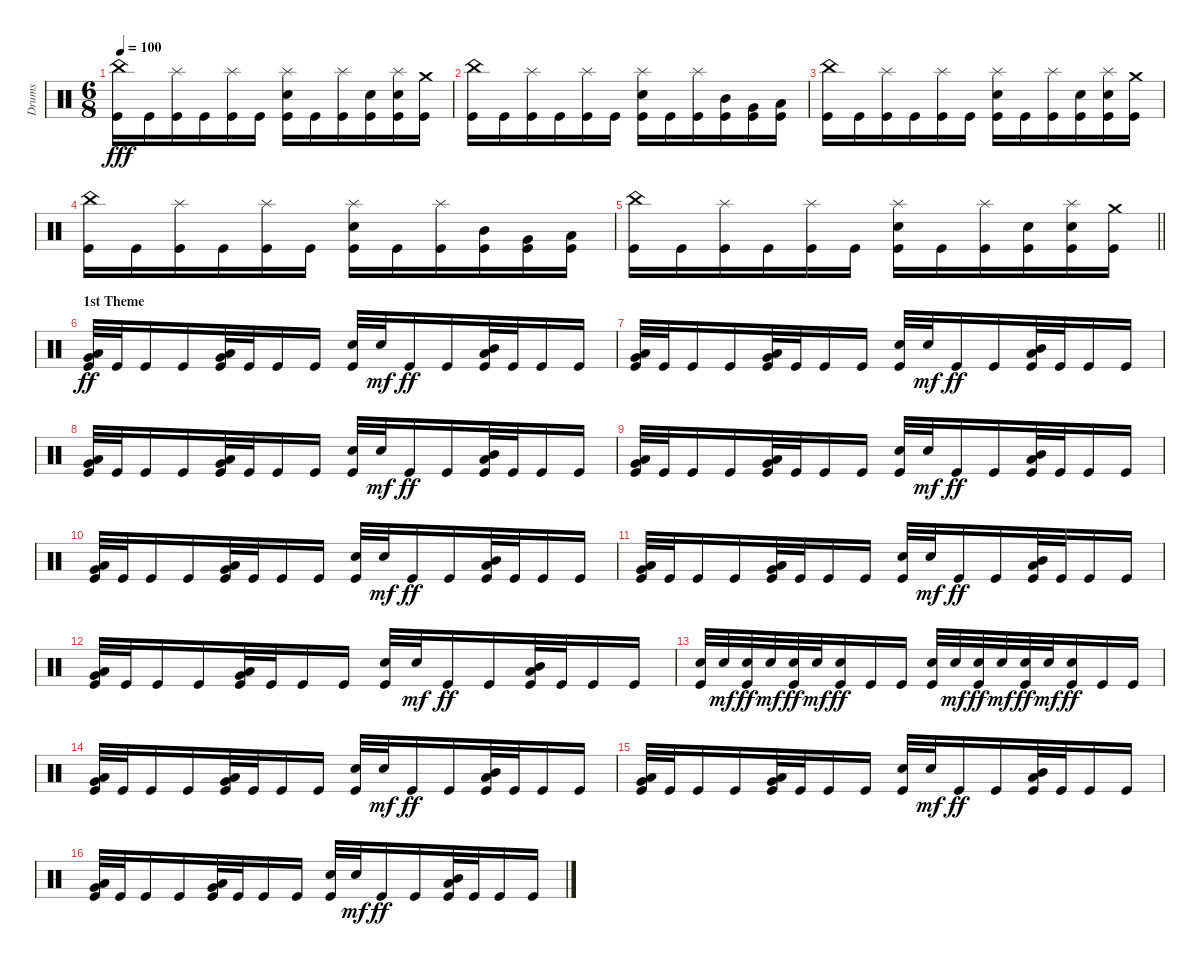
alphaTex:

\track ("Drums" "Drums") {instrument percussion}
\staff
\articulation defaults
\ts (6 8)
\tempo 100
\clef neutral
\ks c
("China (hit)" "Kick (hit)").16{dy fff} "Kick (hit)".16 ("Splash (hit)" "Kick (hit)").16 "Kick (hit)".16 ("Splash (hit)" "Kick (hit)").16 "Kick (hit)".16 ("Splash (hit)" "Snare (hit) 2" "Kick (hit)").16 "Kick (hit)".16 ("Splash (hit)" "Kick (hit)").16 ("Snare (hit) 2" "Kick (hit)").16 ("Splash (hit)" "Snare (hit) 2" "Kick (hit)").16 ("Crash medium (hit)" "Kick (hit)").16 |
("China (hit)" "Kick (hit)").16 "Kick (hit)".16 ("Splash (hit)" "Kick (hit)").16 "Kick (hit)".16 ("Splash (hit)" "Kick (hit)").16 "Kick (hit)".16 ("Splash (hit)" "Snare (hit) 2" "Kick (hit)").16 "Kick (hit)".16 ("Splash (hit)" "Kick (hit)").16 ("Mid Tom (hit)" "Kick (hit)").16 ("Very Low Tom (hit)" "Kick (hit)").16 ("Low Tom (hit)" "Kick (hit)").16 |
("China (hit)" "Kick (hit)").16 "Kick (hit)".16 ("Splash (hit)" "Kick (hit)").16 "Kick (hit)".16 ("Splash (hit)" "Kick (hit)").16 "Kick (hit)".16 ("Splash (hit)" "Snare (hit) 2" "Kick (hit)").16 "Kick (hit)".16 ("Splash (hit)" "Kick (hit)").16 ("Snare (hit) 2" "Kick (hit)").16 ("Splash (hit)" "Snare (hit) 2" "Kick (hit)").16 ("Crash medium (hit)" "Kick (hit)").16 |
("China (hit)" "Kick (hit)").16 "Kick (hit)".16 ("Splash (hit)" "Kick (hit)").16 "Kick (hit)".16 ("Splash (hit)" "Kick (hit)").16 "Kick (hit)".16 ("Splash (hit)" "Snare (hit) 2" "Kick (hit)").16 "Kick (hit)".16 ("Splash (hit)" "Kick (hit)").16 ("Mid Tom (hit)" "Kick (hit)").16 ("Very Low Tom (hit)" "Kick (hit)").16 ("Low Tom (hit)" "Kick (hit)").16 |
\barLineRight lightlight
("China (hit)" "Kick (hit)").16 "Kick (hit)".16 ("Splash (hit)" "Kick (hit)").16 "Kick (hit)".16 ("Splash (hit)" "Kick (hit)").16 "Kick (hit)".16 ("Splash (hit)" "Snare (hit) 2" "Kick (hit)").16 "Kick (hit)".16 ("Splash (hit)" "Kick (hit)").16 ("Snare (hit) 2" "Kick (hit)").16 ("Splash (hit)" "Snare (hit) 2" "Kick (hit)").16 ("Crash medium (hit)" "Kick (hit)").16 |
\section ("" "1st Theme")
("Low Tom (hit)" "Very Low Tom (hit)" "Kick (hit)").32{dy ff} "Kick (hit)".32 "Kick (hit)".16 "Kick (hit)".16 ("Very Low Tom (hit)" "Low Floor Tom (hit)" "Kick (hit)").32 "Kick (hit)".32 "Kick (hit)".16 "Kick (hit)".16 ("Snare (hit) 2" "Kick (hit)").32 "Snare (hit) 2".32{dy mf} "Kick (hit)".16{dy ff} "Kick (hit)".16 ("Mid Tom (hit)" "Low Tom (hit)" "Kick (hit)").32 "Kick (hit)".32 "Kick (hit)".16 "Kick (hit)".16 |
("Low Tom (hit)" "Very Low Tom (hit)" "Kick (hit)").32 "Kick (hit)".32 "Kick (hit)".16 "Kick (hit)".16 ("Very Low Tom (hit)" "Low Floor Tom (hit)" "Kick (hit)").32 "Kick (hit)".32 "Kick (hit)".16 "Kick (hit)".16 ("Snare (hit) 2" "Kick (hit)").32 "Snare (hit) 2".32{dy mf} "Kick (hit)".16{dy ff} "Kick (hit)".16 ("Mid Tom (hit)" "Low Tom (hit)" "Kick (hit)").32 "Kick (hit)".32 "Kick (hit)".16 "Kick (hit)".16 |
("Low Tom (hit)" "Very Low Tom (hit)" "Kick (hit)").32 "Kick (hit)".32 "Kick (hit)".16 "Kick (hit)".16 ("Very Low Tom (hit)" "Low Floor Tom (hit)" "Kick (hit)").32 "Kick (hit)".32 "Kick (hit)".16 "Kick (hit)".16 ("Snare (hit) 2" "Kick (hit)").32 "Snare (hit) 2".32{dy mf} "Kick (hit)".16{dy ff} "Kick (hit)".16 ("Mid Tom (hit)" "Low Tom (hit)" "Kick (hit)").32 "Kick (hit)".32 "Kick (hit)".16 "Kick (hit)".16 |
("Low Tom (hit)" "Very Low Tom (hit)" "Kick (hit)").32 "Kick (hit)".32 "Kick (hit)".16 "Kick (hit)".16 ("Very Low Tom (hit)" "Low Floor Tom (hit)" "Kick (hit)").32 "Kick (hit)".32 "Kick (hit)".16 "Kick (hit)".16 ("Snare (hit) 2" "Kick (hit)").32 "Snare (hit) 2".32{dy mf} "Kick (hit)".16{dy ff} "Kick (hit)".16 ("Mid Tom (hit)" "Low Tom (hit)" "Kick (hit)").32 "Kick (hit)".32 "Kick (hit)".16 "Kick (hit)".16 |
("Low Tom (hit)" "Very Low Tom (hit)" "Kick (hit)").32 "Kick (hit)".32 "Kick (hit)".16 "Kick (hit)".16 ("Very Low Tom (hit)" "Low Floor Tom (hit)" "Kick (hit)").32 "Kick (hit)".32 "Kick (hit)".16 "Kick (hit)".16 ("Snare (hit) 2" "Kick (hit)").32 "Snare (hit) 2".32{dy mf} "Kick (hit)".16{dy ff} "Kick (hit)".16 ("Mid Tom (hit)" "Low Tom (hit)" "Kick (hit)").32 "Kick (hit)".32 "Kick (hit)".16 "Kick (hit)".16 |
("Low Tom (hit)" "Very Low Tom (hit)" "Kick (hit)").32 "Kick (hit)".32 "Kick (hit)".16 "Kick (hit)".16 ("Very Low Tom (hit)" "Low Floor Tom (hit)" "Kick (hit)").32 "Kick (hit)".32 "Kick (hit)".16 "Kick (hit)".16 ("Snare (hit) 2" "Kick (hit)").32 "Snare (hit) 2".32{dy mf} "Kick (hit)".16{dy ff} "Kick (hit)".16 ("Mid Tom (hit)" "Low Tom (hit)" "Kick (hit)").32 "Kick (hit)".32 "Kick (hit)".16 "Kick (hit)".16 |
("Low Tom (hit)" "Very Low Tom (hit)" "Kick (hit)").32 "Kick (hit)".32 "Kick (hit)".16 "Kick (hit)".16 ("Very Low Tom (hit)" "Low Floor Tom (hit)" "Kick (hit)").32 "Kick (hit)".32 "Kick (hit)".16 "Kick (hit)".16 ("Snare (hit) 2" "Kick (hit)").32 "Snare (hit) 2".32{dy mf} "Kick (hit)".16{dy ff} "Kick (hit)".16 ("Mid Tom (hit)" "Low Tom (hit)" "Kick (hit)").32 "Kick (hit)".32 "Kick (hit)".16 "Kick (hit)".16 |
("Snare (hit) 2" "Kick (hit)").32 "Snare (hit) 2".32{dy mf} ("Snare (hit) 2" "Kick (hit)").32{dy ff} "Snare (hit) 2".32{dy mf} ("Snare (hit) 2" "Kick (hit)").32{dy ff} "Snare (hit) 2".32{dy mf} ("Snare (hit) 2" "Kick (hit)").16{dy ff} "Kick (hit)".16 "Kick (hit)".16 ("Snare (hit) 2" "Kick (hit)").32 "Snare (hit) 2".32{dy mf} ("Snare (hit) 2" "Kick (hit)").32{dy ff} "Snare (hit) 2".32{dy mf} ("Snare (hit) 2" "Kick (hit)").32{dy ff} "Snare (hit) 2".32{dy mf} ("Snare (hit) 2" "Kick (hit)").16{dy ff} "Kick (hit)".16 "Kick (hit)".16 |
("Low Tom (hit)" "Very Low Tom (hit)" "Kick (hit)").32 "Kick (hit)".32 "Kick (hit)".16 "Kick (hit)".16 ("Very Low Tom (hit)" "Low Floor Tom (hit)" "Kick (hit)").32 "Kick (hit)".32 "Kick (hit)".16 "Kick (hit)".16 ("Snare (hit) 2" "Kick (hit)").32 "Snare (hit) 2".32{dy mf} "Kick (hit)".16{dy ff} "Kick (hit)".16 ("Mid Tom (hit)" "Low Tom (hit)" "Kick (hit)").32 "Kick (hit)".32 "Kick (hit)".16 "Kick (hit)".16 |
("Low Tom (hit)" "Very Low Tom (hit)" "Kick (hit)").32 "Kick (hit)".32 "Kick (hit)".16 "Kick (hit)".16 ("Very Low Tom (hit)" "Low Floor Tom (hit)" "Kick (hit)").32 "Kick (hit)".32 "Kick (hit)".16 "Kick (hit)".16 ("Snare (hit) 2" "Kick (hit)").32 "Snare (hit) 2".32{dy mf} "Kick (hit)".16{dy ff} "Kick (hit)".16 ("Mid Tom (hit)" "Low Tom (hit)" "Kick (hit)").32 "Kick (hit)".32 "Kick (hit)".16 "Kick (hit)".16 |
("Low Tom (hit)" "Very Low Tom (hit)" "Kick (hit)").32 "Kick (hit)".32 "Kick (hit)".16 "Kick (hit)".16 ("Very Low Tom (hit)" "Low Floor Tom (hit)" "Kick (hit)").32 "Kick (hit)".32 "Kick (hit)".16 "Kick (hit)".16 ("Snare (hit) 2" "Kick (hit)").32 "Snare (hit) 2".32{dy mf} "Kick (hit)".16{dy ff} "Kick (hit)".16 ("Mid Tom (hit)" "Low Tom (hit)" "Kick (hit)").32 "Kick (hit)".32 "Kick (hit)".16 "Kick (hit)".16
